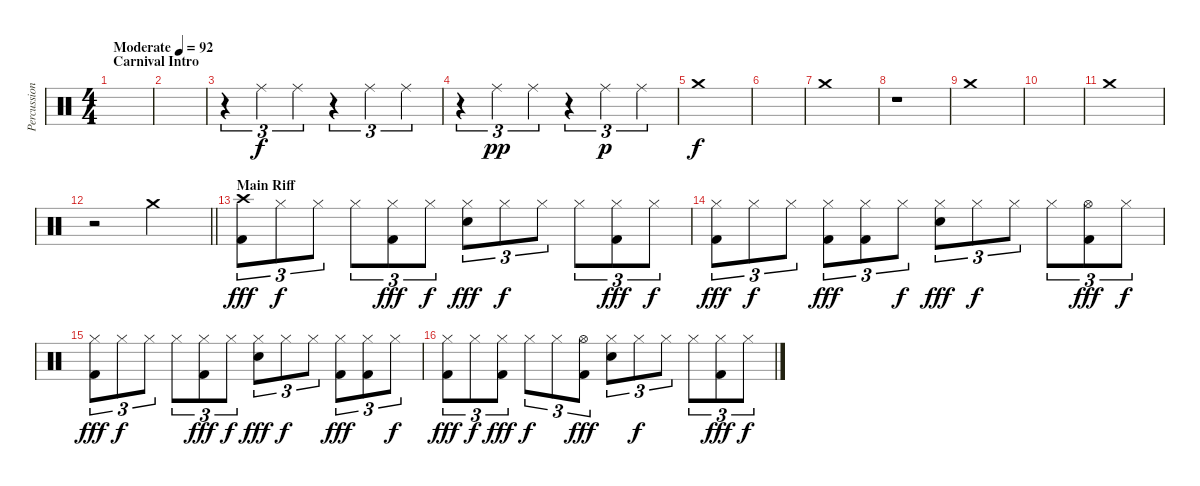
\track ("Percussions" "Percussion") {instrument percussion}
\staff {score}
\articulation defaults
\ts (4 4)
\section ("" "Carnival Intro")
\tempo (92 "Moderate")
\clef neutral
\ks c
|
|
r.4{tu (3 2)} "Ride (middle)".4{tu (3 2)} "Ride (middle)".4{tu (3 2)} r.4{tu (3 2)} "Ride (middle)".4{tu (3 2)} "Ride (middle)".4{tu (3 2)} |
r.4{tu (3 2)} "Ride (middle)".4{tu (3 2) dy pp} "Ride (middle)".4{tu (3 2)} r.4{tu (3 2)} "Ride (middle)".4{tu (3 2) dy p} "Ride (middle)".4{tu (3 2)} |
"Crash medium (hit)".1{dy f} |
|
"Crash medium (hit)".1 |
r.1 |
"Crash medium (hit)".1 |
|
"Crash medium (hit)".1 |
\barLineRight lightlight
r.2 "Crash medium (hit)".2 |
\section ("" "Main Riff")
("Crash high (hit)" "Kick (hit) 2").8{tu (3 2) dy fff} "Hi-Hat (closed)".8{tu (3 2) dy f} "Hi-Hat (closed)".8{tu (3 2)} "Hi-Hat (closed)".8{tu (3 2)} ("Hi-Hat (closed)" "Kick (hit) 2").8{tu (3 2) dy fff} "Hi-Hat (closed)".8{tu (3 2) dy f} ("Hi-Hat (closed)" "Snare (hit) 2").8{tu (3 2) dy fff} "Hi-Hat (closed)".8{tu (3 2) dy f} "Hi-Hat (closed)".8{tu (3 2)} "Hi-Hat (closed)".8{tu (3 2)} ("Hi-Hat (closed)" "Kick (hit) 2").8{tu (3 2) dy fff} "Hi-Hat (closed)".8{tu (3 2) dy f} |
("Hi-Hat (closed)" "Kick (hit) 2").8{tu (3 2) dy fff} "Hi-Hat (closed)".8{tu (3 2) dy f} "Hi-Hat (closed)".8{tu (3 2)} ("Hi-Hat (closed)" "Kick (hit) 2").8{tu (3 2) dy fff} ("Hi-Hat (closed)" "Kick (hit) 2").8{tu (3 2)} "Hi-Hat (closed)".8{tu (3 2) dy f} ("Hi-Hat (closed)" "Snare (hit) 2").8{tu (3 2) dy fff} "Hi-Hat (closed)".8{tu (3 2) dy f} "Hi-Hat (closed)".8{tu (3 2)} "Hi-Hat (closed)".8{tu (3 2)} ("Hi-Hat (open)" "Kick (hit) 2").8{tu (3 2) dy fff} "Hi-Hat (closed)".8{tu (3 2) dy f} |
("Hi-Hat (closed)" "Kick (hit) 2").8{tu (3 2) dy fff} "Hi-Hat (closed)".8{tu (3 2) dy f} "Hi-Hat (closed)".8{tu (3 2)} "Hi-Hat (closed)".8{tu (3 2)} ("Hi-Hat (closed)" "Kick (hit) 2").8{tu (3 2) dy fff} "Hi-Hat (closed)".8{tu (3 2) dy f} ("Hi-Hat (closed)" "Snare (hit) 2").8{tu (3 2) dy fff} "Hi-Hat (closed)".8{tu (3 2) dy f} "Hi-Hat (closed)".8{tu (3 2)} ("Hi-Hat (closed)" "Kick (hit) 2").8{tu (3 2) dy fff} ("Hi-Hat (closed)" "Kick (hit) 2").8{tu (3 2)} "Hi-Hat (closed)".8{tu (3 2) dy f} |
("Hi-Hat (closed)" "Kick (hit) 2").8{tu (3 2) dy fff} "Hi-Hat (closed)".8{tu (3 2) dy f} ("Hi-Hat (closed)" "Kick (hit) 2").8{tu (3 2) dy fff} "Hi-Hat (closed)".8{tu (3 2) dy f} "Hi-Hat (closed)".8{tu (3 2)} ("Hi-Hat (open)" "Kick (hit) 2").8{tu (3 2) dy fff} ("Hi-Hat (closed)" "Snare (hit) 2").8{tu (3 2)} "Hi-Hat (closed)".8{tu (3 2) dy f} "Hi-Hat (closed)".8{tu (3 2)} "Hi-Hat (closed)".8{tu (3 2)} ("Hi-Hat (closed)" "Kick (hit) 2").8{tu (3 2) dy fff} "Hi-Hat (closed)".8{tu (3 2) dy f}
